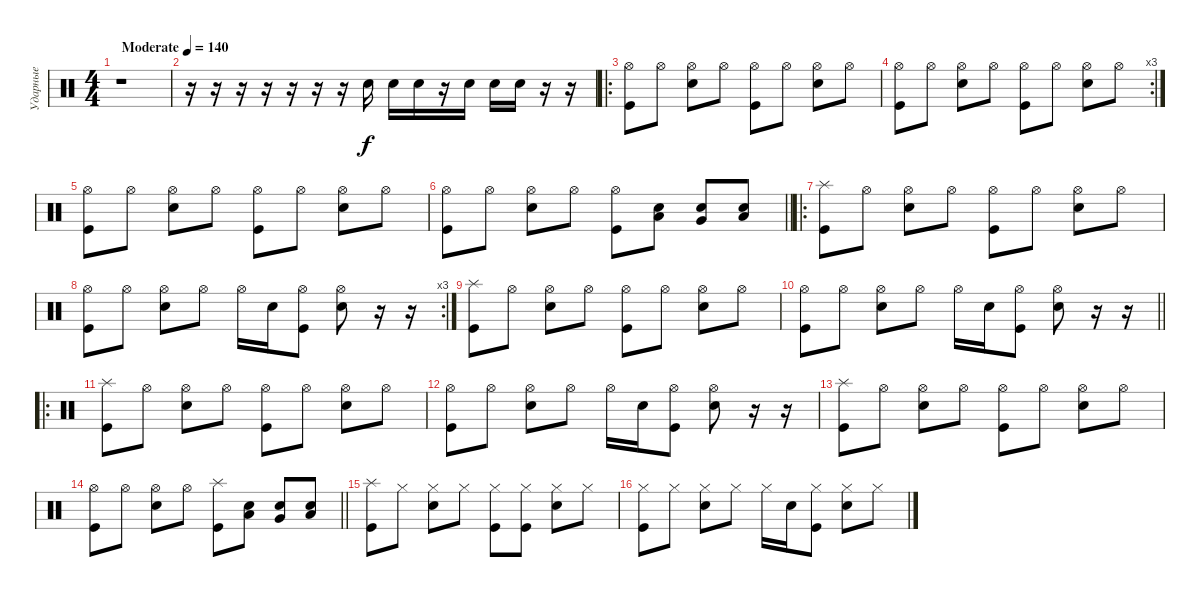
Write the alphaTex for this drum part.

\track ("Ударные" "Ударные") {instrument percussion}
\staff {score}
\articulation defaults
\ts (4 4)
\tempo (140 "Moderate")
\clef neutral
\ks c
r.1{dy f} |
r.16 r.16 r.16 r.16 r.16 r.16 r.16 "Snare (hit) 2".16 "Snare (hit) 2".16 "Snare (hit) 2".16 r.16 "Snare (hit) 2".16 "Snare (hit) 2".16 "Snare (hit) 2".16 r.16 r.16 |
\ro
("Hi-Hat (open)" "Kick (hit)").8 "Hi-Hat (open)".8 ("Hi-Hat (open)" "Snare (hit) 2").8 "Hi-Hat (open)".8 ("Hi-Hat (open)" "Kick (hit)").8 "Hi-Hat (open)".8 ("Hi-Hat (open)" "Snare (hit) 2").8 "Hi-Hat (open)".8 |
\rc 3
("Hi-Hat (open)" "Kick (hit)").8 "Hi-Hat (open)".8 ("Hi-Hat (open)" "Snare (hit) 2").8 "Hi-Hat (open)".8 ("Hi-Hat (open)" "Kick (hit)").8 "Hi-Hat (open)".8 ("Hi-Hat (open)" "Snare (hit) 2").8 "Hi-Hat (open)".8 |
("Hi-Hat (open)" "Kick (hit)").8 "Hi-Hat (open)".8 ("Hi-Hat (open)" "Snare (hit) 2").8 "Hi-Hat (open)".8 ("Hi-Hat (open)" "Kick (hit)").8 "Hi-Hat (open)".8 ("Hi-Hat (open)" "Snare (hit) 2").8 "Hi-Hat (open)".8 |
\barLineRight lightlight
("Hi-Hat (open)" "Kick (hit)").8 "Hi-Hat (open)".8 ("Hi-Hat (open)" "Snare (hit) 2").8 "Hi-Hat (open)".8 ("Hi-Hat (open)" "Kick (hit)").8 ("Snare (hit) 2" "Low Floor Tom (hit)").8 ("Snare (hit) 2" "Very Low Tom (hit)").8 ("Snare (hit) 2" "Low Floor Tom (hit)").8 |
\ro
("Splash (hit)" "Kick (hit)").8 "Hi-Hat (open)".8 ("Hi-Hat (open)" "Snare (hit) 2").8 "Hi-Hat (open)".8 ("Hi-Hat (open)" "Kick (hit)").8 "Hi-Hat (open)".8 ("Hi-Hat (open)" "Snare (hit) 2").8 "Hi-Hat (open)".8 |
\rc 3
("Hi-Hat (open)" "Kick (hit)").8 "Hi-Hat (open)".8 ("Hi-Hat (open)" "Snare (hit) 2").8 "Hi-Hat (open)".8 "Hi-Hat (open)".16 "Snare (hit) 2".16 ("Hi-Hat (open)" "Kick (hit)").8 ("Hi-Hat (open)" "Snare (hit) 2").8 r.16 r.16 |
("Splash (hit)" "Kick (hit)").8 "Hi-Hat (open)".8 ("Hi-Hat (open)" "Snare (hit) 2").8 "Hi-Hat (open)".8 ("Hi-Hat (open)" "Kick (hit)").8 "Hi-Hat (open)".8 ("Hi-Hat (open)" "Snare (hit) 2").8 "Hi-Hat (open)".8 |
\barLineRight lightlight
("Hi-Hat (open)" "Kick (hit)").8 "Hi-Hat (open)".8 ("Hi-Hat (open)" "Snare (hit) 2").8 "Hi-Hat (open)".8 "Hi-Hat (open)".16 "Snare (hit) 2".16 ("Hi-Hat (open)" "Kick (hit)").8 ("Hi-Hat (open)" "Snare (hit) 2").8 r.16 r.16 |
\ro
("Splash (hit)" "Kick (hit)").8 "Hi-Hat (open)".8 ("Hi-Hat (open)" "Snare (hit) 2").8 "Hi-Hat (open)".8 ("Hi-Hat (open)" "Kick (hit)").8 "Hi-Hat (open)".8 ("Hi-Hat (open)" "Snare (hit) 2").8 "Hi-Hat (open)".8 |
("Hi-Hat (open)" "Kick (hit)").8 "Hi-Hat (open)".8 ("Hi-Hat (open)" "Snare (hit) 2").8 "Hi-Hat (open)".8 "Hi-Hat (open)".16 "Snare (hit) 2".16 ("Hi-Hat (open)" "Kick (hit)").8 ("Hi-Hat (open)" "Snare (hit) 2").8 r.16 r.16 |
("Splash (hit)" "Kick (hit)").8 "Hi-Hat (open)".8 ("Hi-Hat (open)" "Snare (hit) 2").8 "Hi-Hat (open)".8 ("Hi-Hat (open)" "Kick (hit)").8 "Hi-Hat (open)".8 ("Hi-Hat (open)" "Snare (hit) 2").8 "Hi-Hat (open)".8 |
\barLineRight lightlight
("Hi-Hat (open)" "Kick (hit)").8 "Hi-Hat (open)".8 ("Hi-Hat (open)" "Snare (hit) 2").8 "Hi-Hat (open)".8 ("Splash (hit)" "Kick (hit)").8 ("Snare (hit) 2" "Low Floor Tom (hit)").8 ("Snare (hit) 2" "Very Low Tom (hit)").8 ("Snare (hit) 2" "Low Floor Tom (hit)").8 |
("Splash (hit)" "Kick (hit)").8 "Hi-Hat (closed)".8 ("Hi-Hat (closed)" "Snare (hit) 2").8 "Hi-Hat (closed)".8 ("Hi-Hat (closed)" "Kick (hit)").8 ("Hi-Hat (closed)" "Kick (hit)").8 ("Hi-Hat (closed)" "Snare (hit) 2").8 "Hi-Hat (closed)".8 |
("Hi-Hat (closed)" "Kick (hit)").8 "Hi-Hat (closed)".8 ("Hi-Hat (closed)" "Snare (hit) 2").8 "Hi-Hat (closed)".8 "Hi-Hat (closed)".16 "Snare (hit) 2".16 ("Hi-Hat (closed)" "Kick (hit)").8 ("Hi-Hat (closed)" "Snare (hit) 2").8 "Hi-Hat (closed)".8
